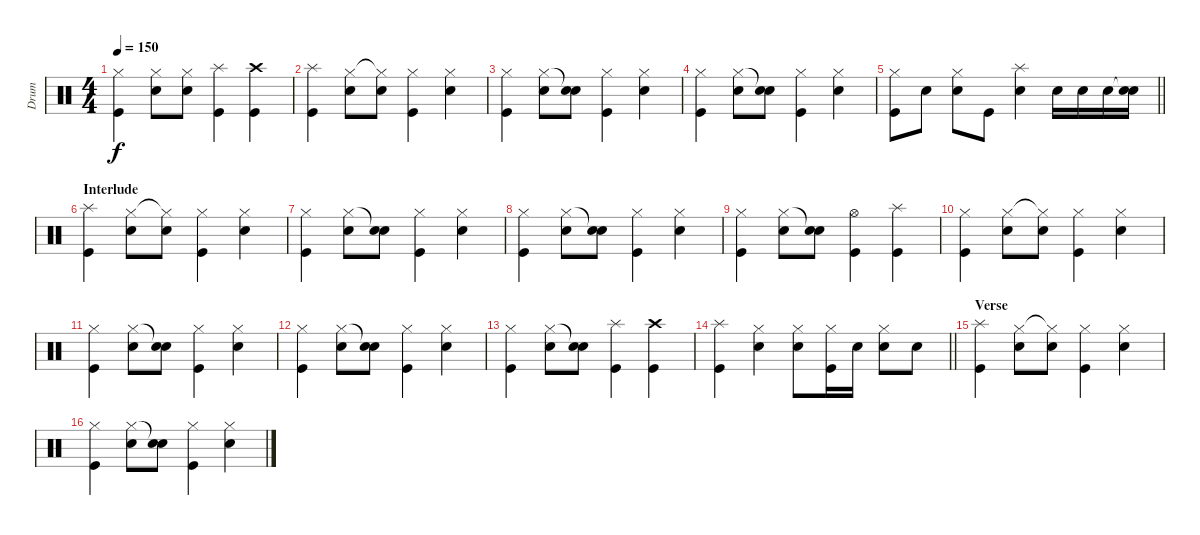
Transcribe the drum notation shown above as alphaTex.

\track ("Drum" "Drum") {instrument percussion}
\staff {score}
\articulation defaults
\ts (4 4)
\tempo 150
\clef neutral
\ks c
("Hi-Hat (closed)" "Kick (hit)").4{dy f} ("Hi-Hat (closed)" "Snare (hit) 2").8 ("Hi-Hat (closed)" "Snare (hit) 2").8 ("Splash (hit)" "Kick (hit)").4 ("Crash high (hit)" "Kick (hit)").4 |
("Splash (hit)" "Kick (hit)").4 ("Hi-Hat (closed)" "Snare (hit) 2").8 ("Hi-Hat (closed)"{t} "Snare (hit) 2").8 ("Hi-Hat (closed)" "Kick (hit)").4 ("Hi-Hat (closed)" "Snare (hit) 2").4 |
("Hi-Hat (closed)" "Kick (hit)").4 ("Hi-Hat (closed)" "Snare (hit) 2").8 ("Snare (hit)"{t} "Snare (hit) 2").8 ("Hi-Hat (closed)" "Kick (hit)").4 ("Hi-Hat (closed)" "Snare (hit) 2").4 |
("Hi-Hat (closed)" "Kick (hit)").4 ("Hi-Hat (closed)" "Snare (hit) 2").8 ("Snare (hit)"{t} "Snare (hit) 2").8 ("Hi-Hat (closed)" "Kick (hit)").4 ("Hi-Hat (closed)" "Snare (hit) 2").4 |
\barLineRight lightlight
("Hi-Hat (closed)" "Kick (hit)").8 "Snare (hit) 2".8 ("Hi-Hat (closed)" "Snare (hit) 2").8 "Kick (hit)".8 ("Splash (hit)" "Snare (hit) 2").4 "Snare (hit) 2".16 "Snare (hit) 2".16 "Snare (hit) 2".16 ("Snare (hit)"{t} "Snare (hit) 2").16 |
\section ("" "Interlude")
("Splash (hit)" "Kick (hit)").4 ("Hi-Hat (closed)" "Snare (hit) 2").8 ("Hi-Hat (closed)"{t} "Snare (hit) 2").8 ("Hi-Hat (closed)" "Kick (hit)").4 ("Hi-Hat (closed)" "Snare (hit) 2").4 |
("Hi-Hat (closed)" "Kick (hit)").4 ("Hi-Hat (closed)" "Snare (hit) 2").8 ("Snare (hit)"{t} "Snare (hit) 2").8 ("Hi-Hat (closed)" "Kick (hit)").4 ("Hi-Hat (closed)" "Snare (hit) 2").4 |
("Hi-Hat (closed)" "Kick (hit)").4 ("Hi-Hat (closed)" "Snare (hit) 2").8 ("Snare (hit)"{t} "Snare (hit) 2").8 ("Hi-Hat (closed)" "Kick (hit)").4 ("Hi-Hat (closed)" "Snare (hit) 2").4 |
("Hi-Hat (closed)" "Kick (hit)").4 ("Hi-Hat (closed)" "Snare (hit) 2").8 ("Snare (hit)"{t} "Snare (hit) 2").8 ("Hi-Hat (open)" "Kick (hit)").4 ("Splash (hit)" "Kick (hit)").4 |
("Hi-Hat (closed)" "Kick (hit)").4 ("Hi-Hat (closed)" "Snare (hit) 2").8 ("Hi-Hat (closed)"{t} "Snare (hit) 2").8 ("Hi-Hat (closed)" "Kick (hit)").4 ("Hi-Hat (closed)" "Snare (hit) 2").4 |
("Hi-Hat (closed)" "Kick (hit)").4 ("Hi-Hat (closed)" "Snare (hit) 2").8 ("Snare (hit)"{t} "Snare (hit) 2").8 ("Hi-Hat (closed)" "Kick (hit)").4 ("Hi-Hat (closed)" "Snare (hit) 2").4 |
("Hi-Hat (closed)" "Kick (hit)").4 ("Hi-Hat (closed)" "Snare (hit) 2").8 ("Snare (hit)"{t} "Snare (hit) 2").8 ("Hi-Hat (closed)" "Kick (hit)").4 ("Hi-Hat (closed)" "Snare (hit) 2").4 |
("Hi-Hat (closed)" "Kick (hit)").4 ("Hi-Hat (closed)" "Snare (hit) 2").8 ("Snare (hit)"{t} "Snare (hit) 2").8 ("Splash (hit)" "Kick (hit)").4 ("Crash high (hit)" "Kick (hit)").4 |
\barLineRight lightlight
("Splash (hit)" "Kick (hit)").4 ("Hi-Hat (closed)" "Snare (hit) 2").4 ("Hi-Hat (closed)" "Snare (hit) 2").8 ("Hi-Hat (closed)" "Kick (hit)").16 "Snare (hit) 2".16 ("Hi-Hat (closed)" "Snare (hit) 2").8 "Snare (hit) 2".8 |
\section ("" "Verse")
("Splash (hit)" "Kick (hit)").4 ("Hi-Hat (closed)" "Snare (hit) 2").8 ("Hi-Hat (closed)"{t} "Snare (hit) 2").8 ("Hi-Hat (closed)" "Kick (hit)").4 ("Hi-Hat (closed)" "Snare (hit) 2").4 |
("Hi-Hat (closed)" "Kick (hit)").4 ("Hi-Hat (closed)" "Snare (hit) 2").8 ("Snare (hit)"{t} "Snare (hit) 2").8 ("Hi-Hat (closed)" "Kick (hit)").4 ("Hi-Hat (closed)" "Snare (hit) 2").4
